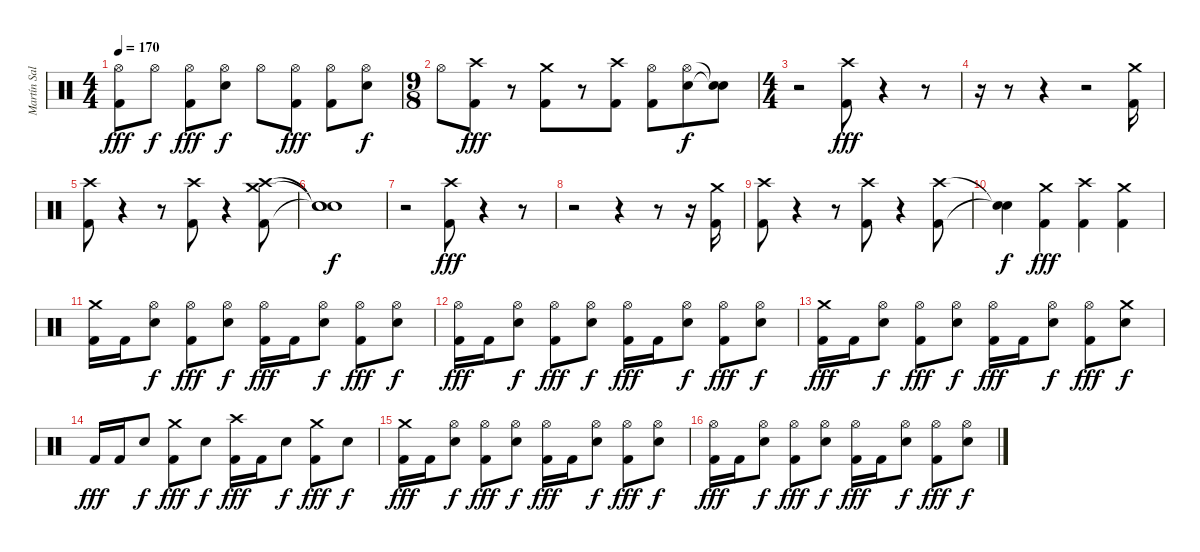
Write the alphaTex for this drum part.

\track ("Martín Salariato" "Martín Sal") {instrument percussion}
\staff {score}
\articulation defaults
\ts (4 4)
\tempo 170
\clef neutral
\ks c
("Hi-Hat (open)" "Kick (hit) 2").8{dy fff} "Hi-Hat (open)".8{dy f} ("Hi-Hat (open)" "Kick (hit) 2").8{dy fff} ("Hi-Hat (open)" "Snare (hit) 2").8{dy f} "Hi-Hat (open)".8 ("Hi-Hat (open)" "Kick (hit) 2").8{dy fff} ("Hi-Hat (open)" "Kick (hit) 2").8 ("Hi-Hat (open)" "Snare (hit) 2").8{dy f} |
\ts (9 8)
"Hi-Hat (open)".8 ("Crash high (hit)" "Kick (hit) 2").8{dy fff} r.8 ("Crash medium (hit)" "Kick (hit) 2").8 r.8 ("Crash high (hit)" "Kick (hit) 2").8 ("Hi-Hat (open)" "Kick (hit) 2").8 ("Hi-Hat (open)" "Snare (hit) 2").8{dy f} ("Snare (hit)"{t} "Snare (hit)"{t}).8 |
\ts (4 4)
r.2 ("Crash high (hit)" "Kick (hit) 2").8{dy fff} r.4 r.8 |
r.16 r.8 r.4 r.2 ("Crash medium (hit)" "Kick (hit) 2").16 |
("Crash high (hit)" "Kick (hit) 2").8 r.4 r.8 ("Crash high (hit)" "Kick (hit) 2").8 r.4 ("Crash medium (hit)" "Crash high (hit)" "Kick (hit) 2").8 |
("Snare (hit)"{t} "Snare (hit)"{t} "Snare (hit)"{t}).1{dy f} |
r.2 ("Crash high (hit)" "Kick (hit) 2").8{dy fff} r.4 r.8 |
r.2 r.4 r.8 r.16 ("Crash medium (hit)" "Kick (hit) 2").16 |
("Crash high (hit)" "Kick (hit) 2").8 r.4 r.8 ("Crash high (hit)" "Kick (hit) 2").8 r.4 ("Crash high (hit)" "Kick (hit) 2").8 |
("Snare (hit)"{t} "Snare (hit)"{t}).4{dy f} ("Crash medium (hit)" "Kick (hit) 2").4{dy fff} ("Crash high (hit)" "Kick (hit) 2").4 ("Crash medium (hit)" "Kick (hit) 2").4 |
("Crash medium (hit)" "Kick (hit) 2").16 "Kick (hit) 2".16 ("Hi-Hat (open)" "Snare (hit) 2").8{dy f} ("Hi-Hat (open)" "Kick (hit) 2").8{dy fff} ("Hi-Hat (open)" "Snare (hit) 2").8{dy f} ("Hi-Hat (open)" "Kick (hit) 2").16{dy fff} "Kick (hit) 2".16 ("Hi-Hat (open)" "Snare (hit) 2").8{dy f} ("Hi-Hat (open)" "Kick (hit) 2").8{dy fff} ("Hi-Hat (open)" "Snare (hit) 2").8{dy f} |
("Hi-Hat (open)" "Kick (hit) 2").16{dy fff} "Kick (hit) 2".16 ("Hi-Hat (open)" "Snare (hit) 2").8{dy f} ("Hi-Hat (open)" "Kick (hit) 2").8{dy fff} ("Hi-Hat (open)" "Snare (hit) 2").8{dy f} ("Hi-Hat (open)" "Kick (hit) 2").16{dy fff} "Kick (hit) 2".16 ("Hi-Hat (open)" "Snare (hit) 2").8{dy f} ("Hi-Hat (open)" "Kick (hit) 2").8{dy fff} ("Hi-Hat (open)" "Snare (hit) 2").8{dy f} |
("Crash medium (hit)" "Kick (hit) 2").16{dy fff} "Kick (hit) 2".16 ("Hi-Hat (open)" "Snare (hit) 2").8{dy f} ("Hi-Hat (open)" "Kick (hit) 2").8{dy fff} ("Hi-Hat (open)" "Snare (hit) 2").8{dy f} ("Hi-Hat (open)" "Kick (hit) 2").16{dy fff} "Kick (hit) 2".16 ("Hi-Hat (open)" "Snare (hit) 2").8{dy f} ("Hi-Hat (open)" "Kick (hit) 2").8{dy fff} ("Crash medium (hit)" "Snare (hit) 2").8{dy f} |
"Kick (hit) 2".16{dy fff} "Kick (hit) 2".16 "Snare (hit) 2".8{dy f} ("Crash medium (hit)" "Kick (hit) 2").8{dy fff} "Snare (hit) 2".8{dy f} ("Crash high (hit)" "Kick (hit) 2").16{dy fff} "Kick (hit) 2".16 "Snare (hit) 2".8{dy f} ("Crash medium (hit)" "Kick (hit) 2").8{dy fff} "Snare (hit) 2".8{dy f} |
("Crash medium (hit)" "Kick (hit) 2").16{dy fff} "Kick (hit) 2".16 ("Hi-Hat (open)" "Snare (hit) 2").8{dy f} ("Hi-Hat (open)" "Kick (hit) 2").8{dy fff} ("Hi-Hat (open)" "Snare (hit) 2").8{dy f} ("Hi-Hat (open)" "Kick (hit) 2").16{dy fff} "Kick (hit) 2".16 ("Hi-Hat (open)" "Snare (hit) 2").8{dy f} ("Hi-Hat (open)" "Kick (hit) 2").8{dy fff} ("Hi-Hat (open)" "Snare (hit) 2").8{dy f} |
("Hi-Hat (open)" "Kick (hit) 2").16{dy fff} "Kick (hit) 2".16 ("Hi-Hat (open)" "Snare (hit) 2").8{dy f} ("Hi-Hat (open)" "Kick (hit) 2").8{dy fff} ("Hi-Hat (open)" "Snare (hit) 2").8{dy f} ("Hi-Hat (open)" "Kick (hit) 2").16{dy fff} "Kick (hit) 2".16 ("Hi-Hat (open)" "Snare (hit) 2").8{dy f} ("Hi-Hat (open)" "Kick (hit) 2").8{dy fff} ("Hi-Hat (open)" "Snare (hit) 2").8{dy f}
